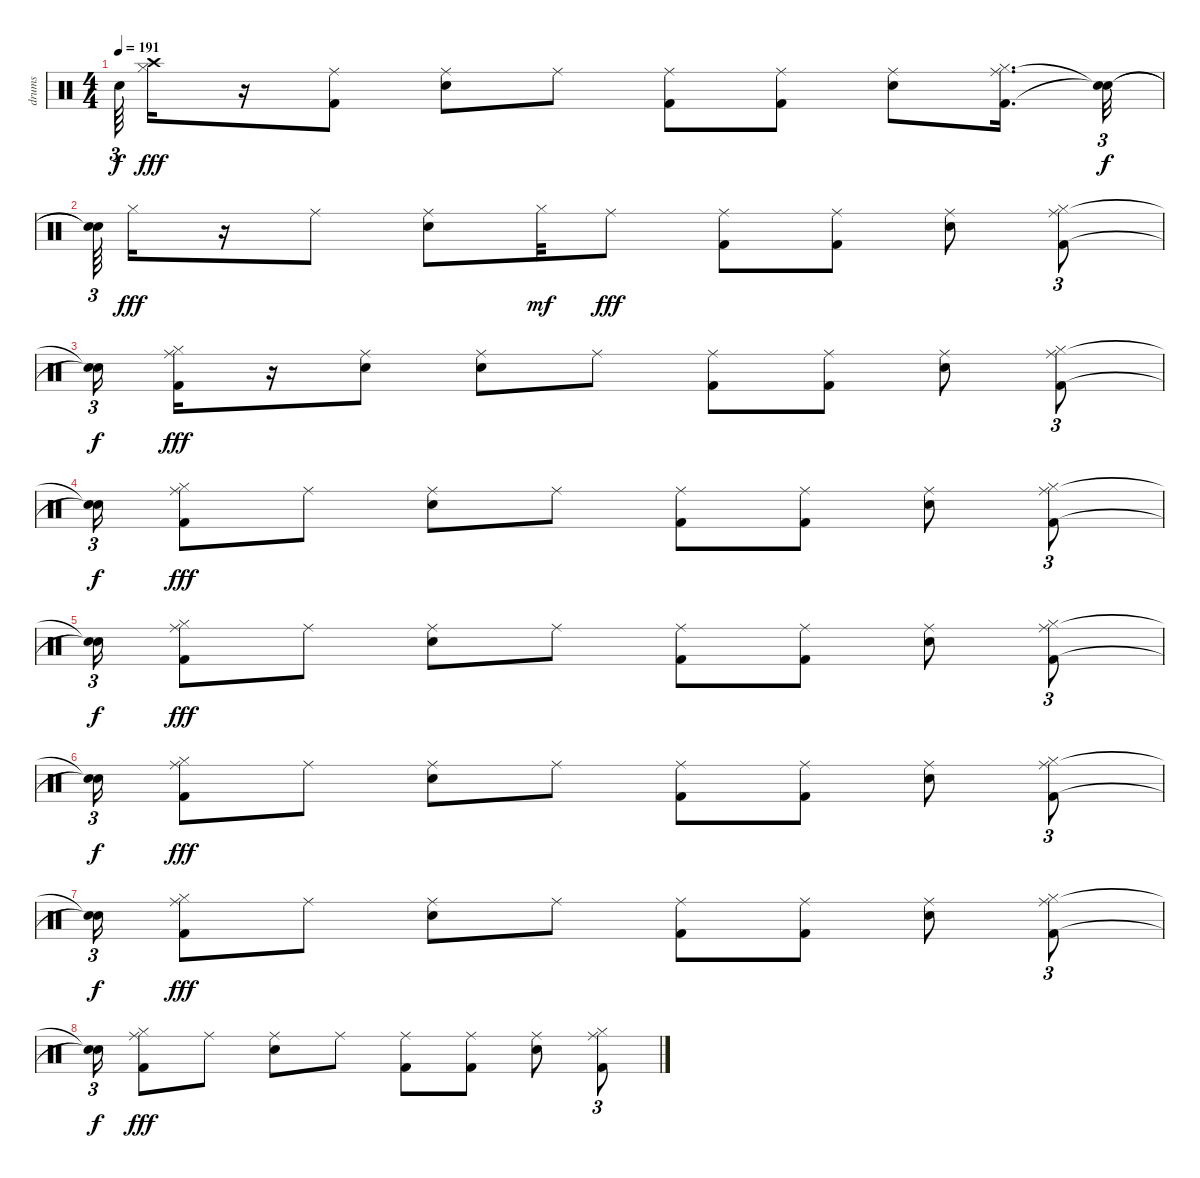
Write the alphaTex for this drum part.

\track ("drums               " "drums     ") {instrument percussion}
\staff {score}
\articulation defaults
\ts (4 4)
\tempo 191
\clef neutral
\ks c "Snare (hit)"{t}.64{tu (3 2) dy f}
("Hi-Hat (closed)" "Crash high (hit)").16{dy fff} r.16 ("Kick (hit) 2" "Ride (middle)").8 ("Snare (hit) 2" "Ride (middle)").8 "Ride (middle)".8 ("Kick (hit) 2" "Ride (middle)").8 ("Kick (hit) 2" "Ride (middle)").8 ("Snare (hit) 2" "Ride (middle)").8 ("Kick (hit) 2" "Ride (middle)" "Hi-Hat (closed)").16{d} ("Snare (hit)"{t} "Snare (hit)"{t}).32{tu (3 2) dy f} |
("Snare (hit)"{t} "Snare (hit)"{t}).64{tu (3 2)} "Hi-Hat (closed)".16{dy fff} r.16 "Ride (middle)".8 ("Snare (hit) 2" "Ride (middle)").8 "Hi-Hat (closed)".32{dy mf} "Ride (middle)".8{dy fff} ("Kick (hit) 2" "Ride (middle)").8 ("Kick (hit) 2" "Ride (middle)").8 ("Snare (hit) 2" "Ride (middle)").8 ("Kick (hit) 2" "Ride (middle)" "Hi-Hat (closed)").8{tu (3 2)} |
("Snare (hit)"{t} "Snare (hit)"{t}).16{tu (3 2) dy f} ("Kick (hit) 2" "Ride (middle)" "Hi-Hat (closed)").16{dy fff} r.16 ("Snare (hit) 2" "Ride (middle)").8 ("Snare (hit) 2" "Ride (middle)").8 "Ride (middle)".8 ("Kick (hit) 2" "Ride (middle)").8 ("Kick (hit) 2" "Ride (middle)").8 ("Snare (hit) 2" "Ride (middle)").8 ("Kick (hit) 2" "Ride (middle)" "Hi-Hat (closed)").8{tu (3 2)} |
("Snare (hit)"{t} "Snare (hit)"{t}).16{tu (3 2) dy f} ("Kick (hit) 2" "Ride (middle)" "Hi-Hat (closed)").8{dy fff} "Ride (middle)".8 ("Snare (hit) 2" "Ride (middle)").8 "Ride (middle)".8 ("Kick (hit) 2" "Ride (middle)").8 ("Kick (hit) 2" "Ride (middle)").8 ("Snare (hit) 2" "Ride (middle)").8 ("Kick (hit) 2" "Ride (middle)" "Hi-Hat (closed)").8{tu (3 2)} |
("Snare (hit)"{t} "Snare (hit)"{t}).16{tu (3 2) dy f} ("Kick (hit) 2" "Ride (middle)" "Hi-Hat (closed)").8{dy fff} "Ride (middle)".8 ("Snare (hit) 2" "Ride (middle)").8 "Ride (middle)".8 ("Kick (hit) 2" "Ride (middle)").8 ("Kick (hit) 2" "Ride (middle)").8 ("Snare (hit) 2" "Ride (middle)").8 ("Kick (hit) 2" "Ride (middle)" "Hi-Hat (closed)").8{tu (3 2)} |
("Snare (hit)"{t} "Snare (hit)"{t}).16{tu (3 2) dy f} ("Kick (hit) 2" "Ride (middle)" "Hi-Hat (closed)").8{dy fff} "Ride (middle)".8 ("Snare (hit) 2" "Ride (middle)").8 "Ride (middle)".8 ("Kick (hit) 2" "Ride (middle)").8 ("Kick (hit) 2" "Ride (middle)").8 ("Snare (hit) 2" "Ride (middle)").8 ("Kick (hit) 2" "Ride (middle)" "Hi-Hat (closed)").8{tu (3 2)} |
("Snare (hit)"{t} "Snare (hit)"{t}).16{tu (3 2) dy f} ("Kick (hit) 2" "Ride (middle)" "Hi-Hat (closed)").8{dy fff} "Ride (middle)".8 ("Snare (hit) 2" "Ride (middle)").8 "Ride (middle)".8 ("Kick (hit) 2" "Ride (middle)").8 ("Kick (hit) 2" "Ride (middle)").8 ("Snare (hit) 2" "Ride (middle)").8 ("Kick (hit) 2" "Ride (middle)" "Hi-Hat (closed)").8{tu (3 2)} |
("Snare (hit)"{t} "Snare (hit)"{t}).16{tu (3 2) dy f} ("Kick (hit) 2" "Ride (middle)" "Hi-Hat (closed)").8{dy fff} "Ride (middle)".8 ("Snare (hit) 2" "Ride (middle)").8 "Ride (middle)".8 ("Kick (hit) 2" "Ride (middle)").8 ("Kick (hit) 2" "Ride (middle)").8 ("Snare (hit) 2" "Ride (middle)").8 ("Kick (hit) 2" "Ride (middle)" "Hi-Hat (closed)").8{tu (3 2)}
